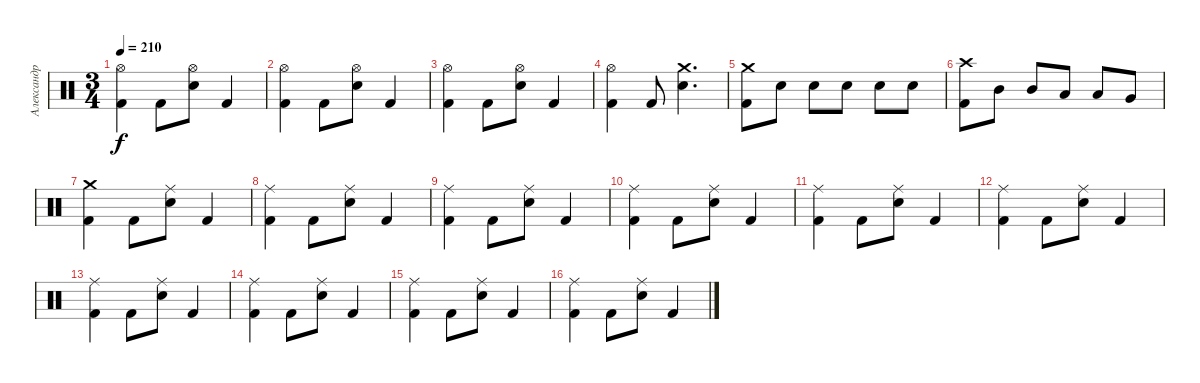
\track ("Александр Манякин" "Александр ") {instrument percussion}
\staff {score}
\articulation defaults
\ts (3 4)
\tempo 210
\clef neutral
\ks c
("Hi-Hat (open)" "Kick (hit) 2").4{dy f} "Kick (hit) 2".8 ("Hi-Hat (open)" "Snare (hit) 2").8 "Kick (hit) 2".4 |
("Hi-Hat (open)" "Kick (hit) 2").4 "Kick (hit) 2".8 ("Hi-Hat (open)" "Snare (hit) 2").8 "Kick (hit) 2".4 |
("Hi-Hat (open)" "Kick (hit) 2").4 "Kick (hit) 2".8 ("Hi-Hat (open)" "Snare (hit) 2").8 "Kick (hit) 2".4 |
("Hi-Hat (open)" "Kick (hit) 2").4 "Kick (hit) 2".8 ("Crash medium (hit)" "Snare (hit) 2").4{d} |
("Crash medium (hit)" "Kick (hit) 2").8 "Snare (hit) 2".8 "Snare (hit) 2".8 "Snare (hit) 2".8 "Snare (hit) 2".8 "Snare (hit) 2".8 |
("Crash high (hit)" "Kick (hit) 2").8 "Mid Tom (hit)".8 "Mid Tom (hit)".8 "Low Tom (hit)".8 "Low Tom (hit)".8 "Very Low Tom (hit)".8 |
("Crash medium (hit)" "Kick (hit) 2").4 "Kick (hit) 2".8 ("Ride (middle)" "Snare (hit) 2").8 "Kick (hit) 2".4 |
("Ride (middle)" "Kick (hit) 2").4 "Kick (hit) 2".8 ("Ride (middle)" "Snare (hit) 2").8 "Kick (hit) 2".4 |
("Ride (middle)" "Kick (hit) 2").4 "Kick (hit) 2".8 ("Ride (middle)" "Snare (hit) 2").8 "Kick (hit) 2".4 |
("Ride (middle)" "Kick (hit) 2").4 "Kick (hit) 2".8 ("Ride (middle)" "Snare (hit) 2").8 "Kick (hit) 2".4 |
("Ride (middle)" "Kick (hit) 2").4 "Kick (hit) 2".8 ("Ride (middle)" "Snare (hit) 2").8 "Kick (hit) 2".4 |
("Ride (middle)" "Kick (hit) 2").4 "Kick (hit) 2".8 ("Ride (middle)" "Snare (hit) 2").8 "Kick (hit) 2".4 |
("Ride (middle)" "Kick (hit) 2").4 "Kick (hit) 2".8 ("Ride (middle)" "Snare (hit) 2").8 "Kick (hit) 2".4 |
("Ride (middle)" "Kick (hit) 2").4 "Kick (hit) 2".8 ("Ride (middle)" "Snare (hit) 2").8 "Kick (hit) 2".4 |
("Ride (middle)" "Kick (hit) 2").4 "Kick (hit) 2".8 ("Ride (middle)" "Snare (hit) 2").8 "Kick (hit) 2".4 |
("Ride (middle)" "Kick (hit) 2").4 "Kick (hit) 2".8 ("Ride (middle)" "Snare (hit) 2").8 "Kick (hit) 2".4
